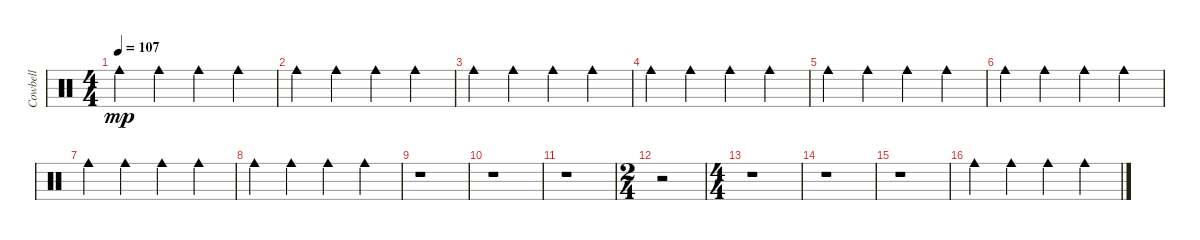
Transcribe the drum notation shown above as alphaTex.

\track ("Cowbell" "Cowbell") {instrument percussion}
\staff {score}
\articulation defaults
\ts (4 4)
\tempo 107
\clef neutral
\ks c "Cowbell medium (hit)".4{dy mp} "Cowbell medium (hit)".4 "Cowbell medium (hit)".4 "Cowbell medium (hit)".4
|
"Cowbell medium (hit)".4 "Cowbell medium (hit)".4 "Cowbell medium (hit)".4 "Cowbell medium (hit)".4 |
"Cowbell medium (hit)".4 "Cowbell medium (hit)".4 "Cowbell medium (hit)".4 "Cowbell medium (hit)".4 |
"Cowbell medium (hit)".4 "Cowbell medium (hit)".4 "Cowbell medium (hit)".4 "Cowbell medium (hit)".4 |
"Cowbell medium (hit)".4 "Cowbell medium (hit)".4 "Cowbell medium (hit)".4 "Cowbell medium (hit)".4 |
"Cowbell medium (hit)".4 "Cowbell medium (hit)".4 "Cowbell medium (hit)".4 "Cowbell medium (hit)".4 |
"Cowbell medium (hit)".4 "Cowbell medium (hit)".4 "Cowbell medium (hit)".4 "Cowbell medium (hit)".4 |
"Cowbell medium (hit)".4 "Cowbell medium (hit)".4 "Cowbell medium (hit)".4 "Cowbell medium (hit)".4 |
r.1 |
r.1 |
r.1 |
\ts (2 4)
r.2 |
\ts (4 4)
r.1 |
r.1 |
r.1 |
"Cowbell medium (hit)".4 "Cowbell medium (hit)".4 "Cowbell medium (hit)".4 "Cowbell medium (hit)".4
